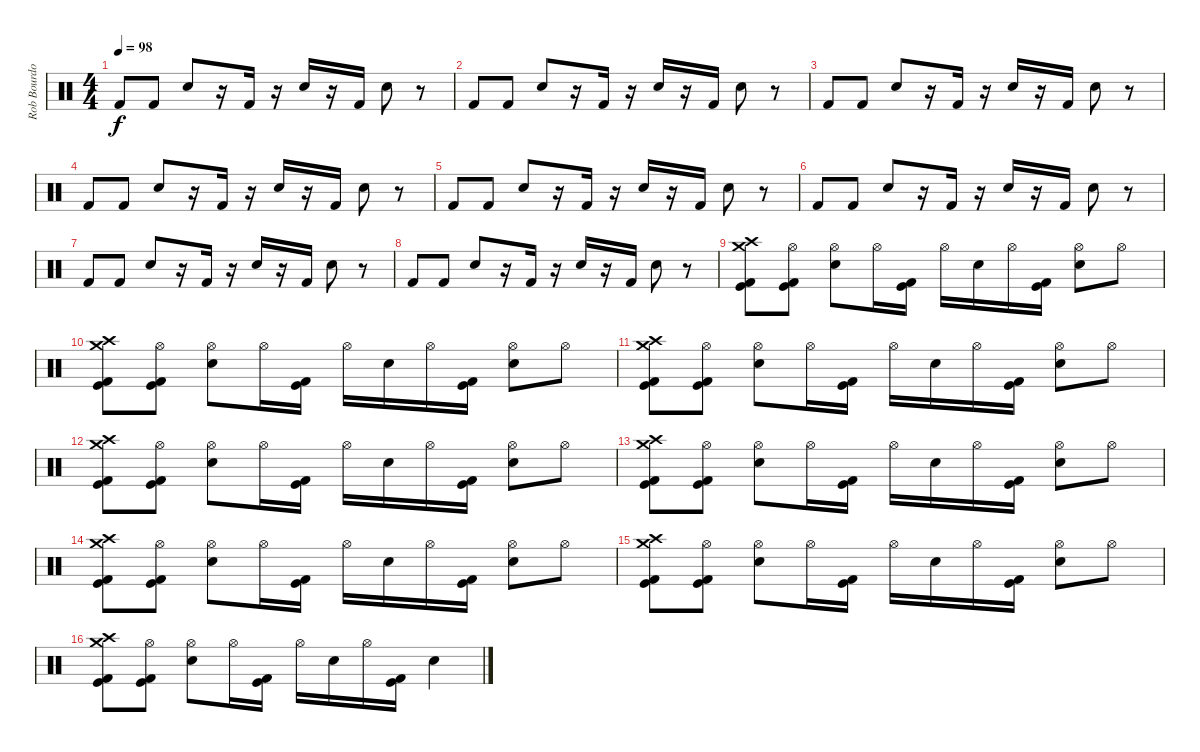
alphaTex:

\track ("Rob Bourdon (Drums)" "Rob Bourdo") {instrument percussion}
\staff {score}
\articulation defaults
\ts (4 4)
\tempo 98
\clef neutral
\ks c "Kick (hit) 2".8{dy f} "Kick (hit) 2".8 "Electric Snare (hit)".8
r.16 "Kick (hit) 2".16 r.16 "Electric Snare (hit)".16 r.16 "Kick (hit) 2".16 "Electric Snare (hit)".8 r.8 |
"Kick (hit) 2".8 "Kick (hit) 2".8 "Electric Snare (hit)".8 r.16 "Kick (hit) 2".16 r.16 "Electric Snare (hit)".16 r.16 "Kick (hit) 2".16 "Electric Snare (hit)".8 r.8 |
"Kick (hit) 2".8 "Kick (hit) 2".8 "Electric Snare (hit)".8 r.16 "Kick (hit) 2".16 r.16 "Electric Snare (hit)".16 r.16 "Kick (hit) 2".16 "Electric Snare (hit)".8 r.8 |
"Kick (hit) 2".8 "Kick (hit) 2".8 "Electric Snare (hit)".8 r.16 "Kick (hit) 2".16 r.16 "Electric Snare (hit)".16 r.16 "Kick (hit) 2".16 "Electric Snare (hit)".8 r.8 |
"Kick (hit) 2".8 "Kick (hit) 2".8 "Electric Snare (hit)".8 r.16 "Kick (hit) 2".16 r.16 "Electric Snare (hit)".16 r.16 "Kick (hit) 2".16 "Electric Snare (hit)".8 r.8 |
"Kick (hit) 2".8 "Kick (hit) 2".8 "Electric Snare (hit)".8 r.16 "Kick (hit) 2".16 r.16 "Electric Snare (hit)".16 r.16 "Kick (hit) 2".16 "Electric Snare (hit)".8 r.8 |
"Kick (hit) 2".8 "Kick (hit) 2".8 "Electric Snare (hit)".8 r.16 "Kick (hit) 2".16 r.16 "Electric Snare (hit)".16 r.16 "Kick (hit) 2".16 "Electric Snare (hit)".8 r.8 |
"Kick (hit) 2".8 "Kick (hit) 2".8 "Electric Snare (hit)".8 r.16 "Kick (hit) 2".16 r.16 "Electric Snare (hit)".16 r.16 "Kick (hit) 2".16 "Electric Snare (hit)".8 r.8 |
("Crash medium (hit)" "Crash high (hit)" "Kick (hit)" "Kick (hit) 2").8 ("Hi-Hat (open)" "Kick (hit)" "Kick (hit) 2").8 ("Hi-Hat (open)" "Electric Snare (hit)").8 "Hi-Hat (open)".16 ("Kick (hit)" "Kick (hit) 2").16 "Hi-Hat (open)".16 "Electric Snare (hit)".16 "Hi-Hat (open)".16 ("Kick (hit)" "Kick (hit) 2").16 ("Hi-Hat (open)" "Electric Snare (hit)").8 "Hi-Hat (open)".8 |
("Crash medium (hit)" "Crash high (hit)" "Kick (hit)" "Kick (hit) 2").8 ("Hi-Hat (open)" "Kick (hit)" "Kick (hit) 2").8 ("Hi-Hat (open)" "Electric Snare (hit)").8 "Hi-Hat (open)".16 ("Kick (hit)" "Kick (hit) 2").16 "Hi-Hat (open)".16 "Electric Snare (hit)".16 "Hi-Hat (open)".16 ("Kick (hit)" "Kick (hit) 2").16 ("Hi-Hat (open)" "Electric Snare (hit)").8 "Hi-Hat (open)".8 |
("Crash medium (hit)" "Crash high (hit)" "Kick (hit)" "Kick (hit) 2").8 ("Hi-Hat (open)" "Kick (hit)" "Kick (hit) 2").8 ("Hi-Hat (open)" "Electric Snare (hit)").8 "Hi-Hat (open)".16 ("Kick (hit)" "Kick (hit) 2").16 "Hi-Hat (open)".16 "Electric Snare (hit)".16 "Hi-Hat (open)".16 ("Kick (hit)" "Kick (hit) 2").16 ("Hi-Hat (open)" "Electric Snare (hit)").8 "Hi-Hat (open)".8 |
("Crash medium (hit)" "Crash high (hit)" "Kick (hit)" "Kick (hit) 2").8 ("Hi-Hat (open)" "Kick (hit)" "Kick (hit) 2").8 ("Hi-Hat (open)" "Electric Snare (hit)").8 "Hi-Hat (open)".16 ("Kick (hit)" "Kick (hit) 2").16 "Hi-Hat (open)".16 "Electric Snare (hit)".16 "Hi-Hat (open)".16 ("Kick (hit)" "Kick (hit) 2").16 ("Hi-Hat (open)" "Electric Snare (hit)").8 "Hi-Hat (open)".8 |
("Crash medium (hit)" "Crash high (hit)" "Kick (hit)" "Kick (hit) 2").8 ("Hi-Hat (open)" "Kick (hit)" "Kick (hit) 2").8 ("Hi-Hat (open)" "Electric Snare (hit)").8 "Hi-Hat (open)".16 ("Kick (hit)" "Kick (hit) 2").16 "Hi-Hat (open)".16 "Electric Snare (hit)".16 "Hi-Hat (open)".16 ("Kick (hit)" "Kick (hit) 2").16 ("Hi-Hat (open)" "Electric Snare (hit)").8 "Hi-Hat (open)".8 |
("Crash medium (hit)" "Crash high (hit)" "Kick (hit)" "Kick (hit) 2").8 ("Hi-Hat (open)" "Kick (hit)" "Kick (hit) 2").8 ("Hi-Hat (open)" "Electric Snare (hit)").8 "Hi-Hat (open)".16 ("Kick (hit)" "Kick (hit) 2").16 "Hi-Hat (open)".16 "Electric Snare (hit)".16 "Hi-Hat (open)".16 ("Kick (hit)" "Kick (hit) 2").16 ("Hi-Hat (open)" "Electric Snare (hit)").8 "Hi-Hat (open)".8 |
("Crash medium (hit)" "Crash high (hit)" "Kick (hit)" "Kick (hit) 2").8 ("Hi-Hat (open)" "Kick (hit)" "Kick (hit) 2").8 ("Hi-Hat (open)" "Electric Snare (hit)").8 "Hi-Hat (open)".16 ("Kick (hit)" "Kick (hit) 2").16 "Hi-Hat (open)".16 "Electric Snare (hit)".16 "Hi-Hat (open)".16 ("Kick (hit)" "Kick (hit) 2").16 ("Hi-Hat (open)" "Electric Snare (hit)").8 "Hi-Hat (open)".8 |
("Crash medium (hit)" "Crash high (hit)" "Kick (hit)" "Kick (hit) 2").8 ("Hi-Hat (open)" "Kick (hit)" "Kick (hit) 2").8 ("Hi-Hat (open)" "Electric Snare (hit)").8 "Hi-Hat (open)".16 ("Kick (hit)" "Kick (hit) 2").16 "Hi-Hat (open)".16 "Electric Snare (hit)".16 "Hi-Hat (open)".16 ("Kick (hit)" "Kick (hit) 2").16 "Electric Snare (hit)".4
